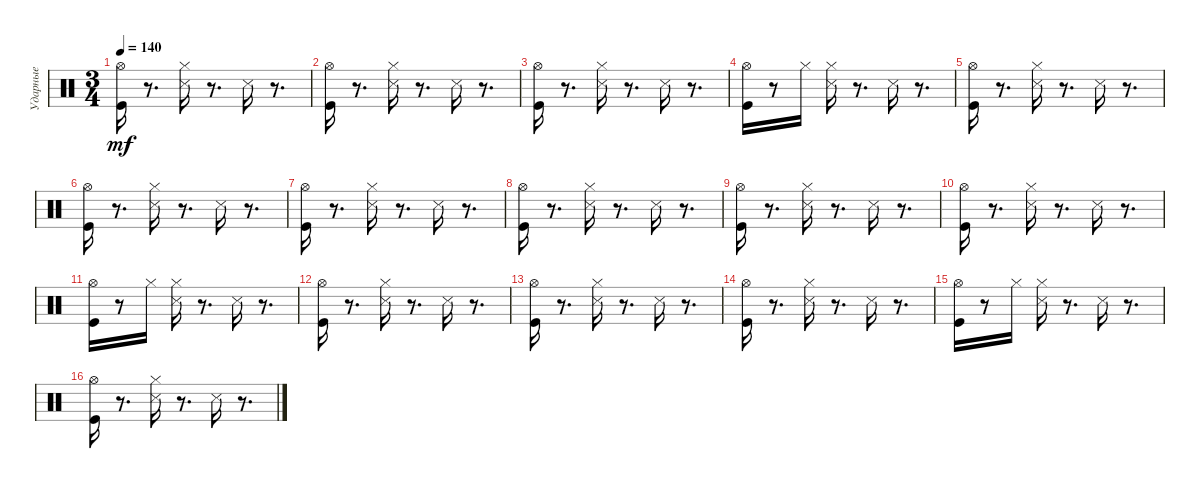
\track ("Ударные" "Ударные") {instrument percussion}
\staff {score}
\articulation defaults
\ts (3 4)
\tempo 140
\clef neutral
\ks c
("Kick (hit)" "Hi-Hat (open)").16{dy mf} r.8{d} ("Hi-Hat (closed)" "Snare (side stick) 3").16 r.8{d} "Snare (side stick) 3".16 r.8{d} |
("Kick (hit)" "Hi-Hat (open)").16 r.8{d} ("Hi-Hat (closed)" "Snare (side stick) 3").16 r.8{d} "Snare (side stick) 3".16 r.8{d} |
("Kick (hit)" "Hi-Hat (open)").16 r.8{d} ("Hi-Hat (closed)" "Snare (side stick) 3").16 r.8{d} "Snare (side stick) 3".16 r.8{d} |
("Kick (hit)" "Hi-Hat (open)").16 r.8 "Hi-Hat (closed)".16 ("Hi-Hat (closed)" "Snare (side stick) 3").16 r.8{d} "Snare (side stick) 3".16 r.8{d} |
("Kick (hit)" "Hi-Hat (open)").16 r.8{d} ("Hi-Hat (closed)" "Snare (side stick) 3").16 r.8{d} "Snare (side stick) 3".16 r.8{d} |
("Kick (hit)" "Hi-Hat (open)").16 r.8{d} ("Hi-Hat (closed)" "Snare (side stick) 3").16 r.8{d} "Snare (side stick) 3".16 r.8{d} |
("Kick (hit)" "Hi-Hat (open)").16 r.8{d} ("Hi-Hat (closed)" "Snare (side stick) 3").16 r.8{d} "Snare (side stick) 3".16 r.8{d} |
("Kick (hit)" "Hi-Hat (open)").16 r.8{d} ("Hi-Hat (closed)" "Snare (side stick) 3").16 r.8{d} "Snare (side stick) 3".16 r.8{d} |
("Kick (hit)" "Hi-Hat (open)").16 r.8{d} ("Hi-Hat (closed)" "Snare (side stick) 3").16 r.8{d} "Snare (side stick) 3".16 r.8{d} |
("Kick (hit)" "Hi-Hat (open)").16 r.8{d} ("Hi-Hat (closed)" "Snare (side stick) 3").16 r.8{d} "Snare (side stick) 3".16 r.8{d} |
("Kick (hit)" "Hi-Hat (open)").16 r.8 "Hi-Hat (closed)".16 ("Hi-Hat (closed)" "Snare (side stick) 3").16 r.8{d} "Snare (side stick) 3".16 r.8{d} |
("Kick (hit)" "Hi-Hat (open)").16 r.8{d} ("Hi-Hat (closed)" "Snare (side stick) 3").16 r.8{d} "Snare (side stick) 3".16 r.8{d} |
("Kick (hit)" "Hi-Hat (open)").16 r.8{d} ("Hi-Hat (closed)" "Snare (side stick) 3").16 r.8{d} "Snare (side stick) 3".16 r.8{d} |
("Kick (hit)" "Hi-Hat (open)").16 r.8{d} ("Hi-Hat (closed)" "Snare (side stick) 3").16 r.8{d} "Snare (side stick) 3".16 r.8{d} |
("Kick (hit)" "Hi-Hat (open)").16 r.8 "Hi-Hat (closed)".16 ("Hi-Hat (closed)" "Snare (side stick) 3").16 r.8{d} "Snare (side stick) 3".16 r.8{d} |
("Kick (hit)" "Hi-Hat (open)").16 r.8{d} ("Hi-Hat (closed)" "Snare (side stick) 3").16 r.8{d} "Snare (side stick) 3".16 r.8{d}
